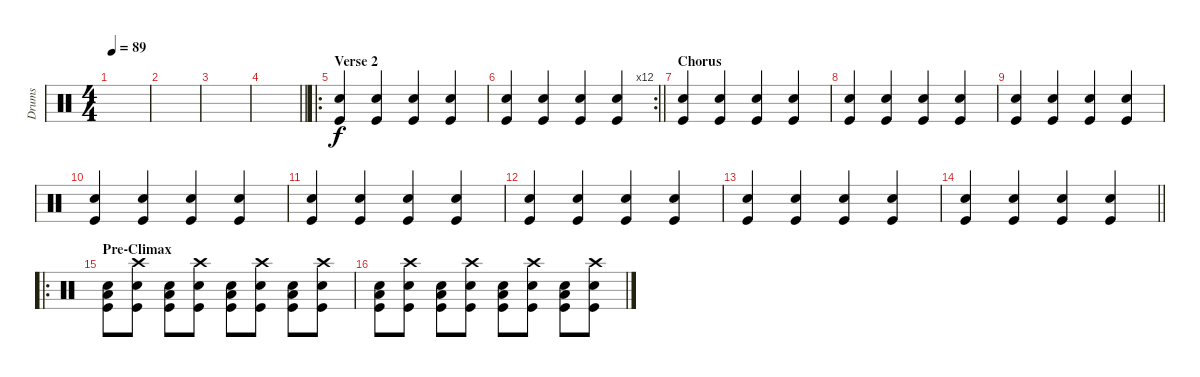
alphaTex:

\track ("Drums" "Drums") {instrument percussion}
\staff {score}
\articulation defaults
\ts (4 4)
\tempo 89
\clef neutral
\ks c
|
|
|
\barLineRight lightlight
|
\ro
\section ("" "Verse 2")
("Hand Clap (hit)" "Kick (hit)").4 ("Hand Clap (hit)" "Kick (hit)").4 ("Hand Clap (hit)" "Kick (hit)").4 ("Hand Clap (hit)" "Kick (hit)").4 |
\rc 12
\barLineRight lightlight
("Hand Clap (hit)" "Kick (hit)").4 ("Hand Clap (hit)" "Kick (hit)").4 ("Hand Clap (hit)" "Kick (hit)").4 ("Hand Clap (hit)" "Kick (hit)").4 |
\section ("" "Chorus")
("Hand Clap (hit)" "Kick (hit)").4 ("Hand Clap (hit)" "Kick (hit)").4 ("Hand Clap (hit)" "Kick (hit)").4 ("Hand Clap (hit)" "Kick (hit)").4 |
("Hand Clap (hit)" "Kick (hit)").4 ("Hand Clap (hit)" "Kick (hit)").4 ("Hand Clap (hit)" "Kick (hit)").4 ("Hand Clap (hit)" "Kick (hit)").4 |
("Hand Clap (hit)" "Kick (hit)").4 ("Hand Clap (hit)" "Kick (hit)").4 ("Hand Clap (hit)" "Kick (hit)").4 ("Hand Clap (hit)" "Kick (hit)").4 |
("Hand Clap (hit)" "Kick (hit)").4 ("Hand Clap (hit)" "Kick (hit)").4 ("Hand Clap (hit)" "Kick (hit)").4 ("Hand Clap (hit)" "Kick (hit)").4 |
("Hand Clap (hit)" "Kick (hit)").4 ("Hand Clap (hit)" "Kick (hit)").4 ("Hand Clap (hit)" "Kick (hit)").4 ("Hand Clap (hit)" "Kick (hit)").4 |
("Hand Clap (hit)" "Kick (hit)").4 ("Hand Clap (hit)" "Kick (hit)").4 ("Hand Clap (hit)" "Kick (hit)").4 ("Hand Clap (hit)" "Kick (hit)").4 |
("Hand Clap (hit)" "Kick (hit)").4 ("Hand Clap (hit)" "Kick (hit)").4 ("Hand Clap (hit)" "Kick (hit)").4 ("Hand Clap (hit)" "Kick (hit)").4 |
\barLineRight lightlight
("Hand Clap (hit)" "Kick (hit)").4 ("Hand Clap (hit)" "Kick (hit)").4 ("Hand Clap (hit)" "Kick (hit)").4 ("Hand Clap (hit)" "Kick (hit)").4 |
\ro
\section ("" "Pre-Climax")
("Low Floor Tom (hit)" "Hand Clap (hit)" "Kick (hit)").8 ("Crash high (hit)" "Hand Clap (hit)" "Kick (hit)").8 ("Low Floor Tom (hit)" "Hand Clap (hit)" "Kick (hit)").8 ("Crash high (hit)" "Hand Clap (hit)" "Kick (hit)").8 ("Low Floor Tom (hit)" "Hand Clap (hit)" "Kick (hit)").8 ("Crash high (hit)" "Hand Clap (hit)" "Kick (hit)").8 ("Low Floor Tom (hit)" "Hand Clap (hit)" "Kick (hit)").8 ("Crash high (hit)" "Hand Clap (hit)" "Kick (hit)").8 |
("Low Floor Tom (hit)" "Hand Clap (hit)" "Kick (hit)").8 ("Crash high (hit)" "Hand Clap (hit)" "Kick (hit)").8 ("Low Floor Tom (hit)" "Hand Clap (hit)" "Kick (hit)").8 ("Crash high (hit)" "Hand Clap (hit)" "Kick (hit)").8 ("Low Floor Tom (hit)" "Hand Clap (hit)" "Kick (hit)").8 ("Crash high (hit)" "Hand Clap (hit)" "Kick (hit)").8 ("Low Floor Tom (hit)" "Hand Clap (hit)" "Kick (hit)").8 ("Crash high (hit)" "Hand Clap (hit)" "Kick (hit)").8
